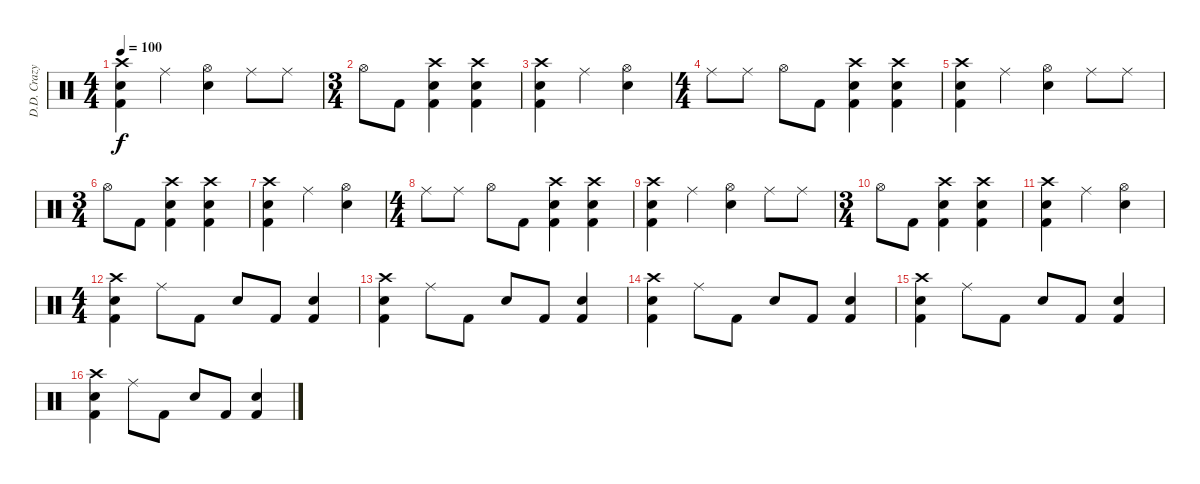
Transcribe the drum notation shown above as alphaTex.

\track ("D.D. Crazy " "D.D. Crazy") {instrument percussion}
\staff {score}
\articulation defaults
\ts (4 4)
\tempo 100
\clef neutral
\ks c
("Crash high (hit)" "Snare (hit) 2" "Kick (hit) 2").4{dy f} "Ride (middle)".4 ("Hi-Hat (open)" "Snare (hit) 2").4 "Ride (middle)".8 "Ride (middle)".8 |
\ts (3 4)
"Hi-Hat (open)".8 "Kick (hit) 2".8 ("Crash high (hit)" "Snare (hit) 2" "Kick (hit) 2").4 ("Crash high (hit)" "Snare (hit) 2" "Kick (hit) 2").4 |
("Crash high (hit)" "Snare (hit) 2" "Kick (hit) 2").4 "Ride (middle)".4 ("Hi-Hat (open)" "Snare (hit) 2").4 |
\ts (4 4)
"Ride (middle)".8 "Ride (middle)".8 "Hi-Hat (open)".8 "Kick (hit) 2".8 ("Crash high (hit)" "Snare (hit) 2" "Kick (hit) 2").4 ("Crash high (hit)" "Snare (hit) 2" "Kick (hit) 2").4 |
("Crash high (hit)" "Snare (hit) 2" "Kick (hit) 2").4 "Ride (middle)".4 ("Hi-Hat (open)" "Snare (hit) 2").4 "Ride (middle)".8 "Ride (middle)".8 |
\ts (3 4)
"Hi-Hat (open)".8 "Kick (hit) 2".8 ("Crash high (hit)" "Snare (hit) 2" "Kick (hit) 2").4 ("Crash high (hit)" "Snare (hit) 2" "Kick (hit) 2").4 |
("Crash high (hit)" "Snare (hit) 2" "Kick (hit) 2").4 "Ride (middle)".4 ("Hi-Hat (open)" "Snare (hit) 2").4 |
\ts (4 4)
"Ride (middle)".8 "Ride (middle)".8 "Hi-Hat (open)".8 "Kick (hit) 2".8 ("Crash high (hit)" "Snare (hit) 2" "Kick (hit) 2").4 ("Crash high (hit)" "Snare (hit) 2" "Kick (hit) 2").4 |
("Crash high (hit)" "Snare (hit) 2" "Kick (hit) 2").4 "Ride (middle)".4 ("Hi-Hat (open)" "Snare (hit) 2").4 "Ride (middle)".8 "Ride (middle)".8 |
\ts (3 4)
"Hi-Hat (open)".8 "Kick (hit) 2".8 ("Crash high (hit)" "Snare (hit) 2" "Kick (hit) 2").4 ("Crash high (hit)" "Snare (hit) 2" "Kick (hit) 2").4 |
("Crash high (hit)" "Snare (hit) 2" "Kick (hit) 2").4 "Ride (middle)".4 ("Hi-Hat (open)" "Snare (hit) 2").4 |
\ts (4 4)
("Crash high (hit)" "Snare (hit) 2" "Kick (hit) 2").4 "Ride (middle)".8 "Kick (hit) 2".8 "Snare (hit) 2".8 "Kick (hit) 2".8 ("Snare (hit) 2" "Kick (hit) 2").4 |
("Crash high (hit)" "Snare (hit) 2" "Kick (hit) 2").4 "Ride (middle)".8 "Kick (hit) 2".8 "Snare (hit) 2".8 "Kick (hit) 2".8 ("Snare (hit) 2" "Kick (hit) 2").4 |
("Crash high (hit)" "Snare (hit) 2" "Kick (hit) 2").4 "Ride (middle)".8 "Kick (hit) 2".8 "Snare (hit) 2".8 "Kick (hit) 2".8 ("Snare (hit) 2" "Kick (hit) 2").4 |
("Crash high (hit)" "Snare (hit) 2" "Kick (hit) 2").4 "Ride (middle)".8 "Kick (hit) 2".8 "Snare (hit) 2".8 "Kick (hit) 2".8 ("Snare (hit) 2" "Kick (hit) 2").4 |
("Crash high (hit)" "Snare (hit) 2" "Kick (hit) 2").4 "Ride (middle)".8 "Kick (hit) 2".8 "Snare (hit) 2".8 "Kick (hit) 2".8 ("Snare (hit) 2" "Kick (hit) 2").4
